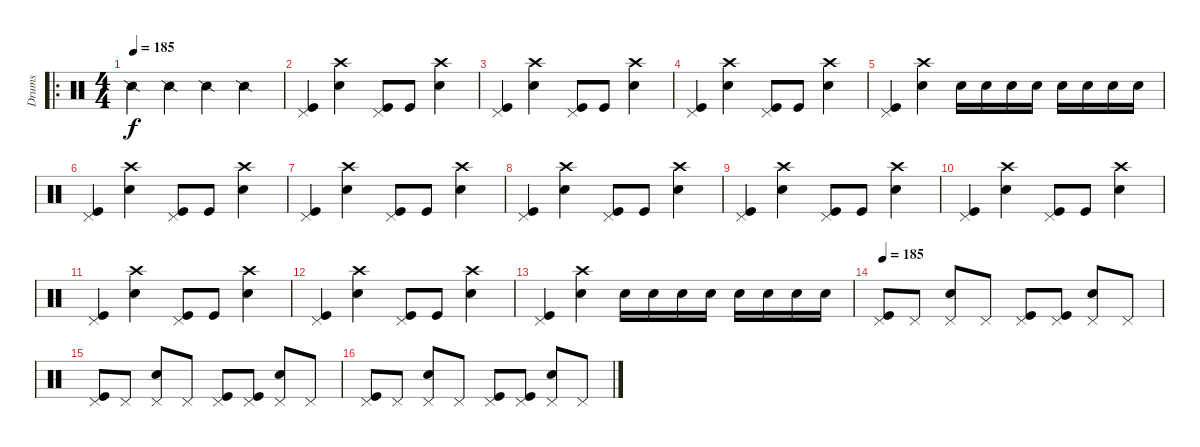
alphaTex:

\track ("Drums" "Drums") {instrument percussion}
\staff {score}
\articulation defaults
\ro
\ts (4 4)
\tempo 185
\clef neutral
\ks c "Snare (side stick) 2".4{dy f} "Snare (side stick) 2".4 "Snare (side stick) 2".4 "Snare (side stick) 2".4
|
("Pedal Hi-Hat (hit)" "Kick (hit)").4 ("Crash high (hit)" "Electric Snare (hit)").4 ("Pedal Hi-Hat (hit)" "Kick (hit)").8 "Kick (hit)".8 ("Crash high (hit)" "Electric Snare (hit)").4 |
("Pedal Hi-Hat (hit)" "Kick (hit)").4 ("Crash high (hit)" "Electric Snare (hit)").4 ("Pedal Hi-Hat (hit)" "Kick (hit)").8 "Kick (hit)".8 ("Crash high (hit)" "Electric Snare (hit)").4 |
("Pedal Hi-Hat (hit)" "Kick (hit)").4 ("Crash high (hit)" "Electric Snare (hit)").4 ("Pedal Hi-Hat (hit)" "Kick (hit)").8 "Kick (hit)".8 ("Crash high (hit)" "Electric Snare (hit)").4 |
("Pedal Hi-Hat (hit)" "Kick (hit)").4 ("Crash high (hit)" "Electric Snare (hit)").4 "Electric Snare (hit)".16 "Electric Snare (hit)".16 "Electric Snare (hit)".16 "Electric Snare (hit)".16 "Electric Snare (hit)".16 "Electric Snare (hit)".16 "Electric Snare (hit)".16 "Electric Snare (hit)".16 |
("Pedal Hi-Hat (hit)" "Kick (hit)").4 ("Crash high (hit)" "Electric Snare (hit)").4 ("Pedal Hi-Hat (hit)" "Kick (hit)").8 "Kick (hit)".8 ("Crash high (hit)" "Electric Snare (hit)").4 |
("Pedal Hi-Hat (hit)" "Kick (hit)").4 ("Crash high (hit)" "Electric Snare (hit)").4 ("Pedal Hi-Hat (hit)" "Kick (hit)").8 "Kick (hit)".8 ("Crash high (hit)" "Electric Snare (hit)").4 |
("Pedal Hi-Hat (hit)" "Kick (hit)").4 ("Crash high (hit)" "Electric Snare (hit)").4 ("Pedal Hi-Hat (hit)" "Kick (hit)").8 "Kick (hit)".8 ("Crash high (hit)" "Electric Snare (hit)").4 |
("Pedal Hi-Hat (hit)" "Kick (hit)").4 ("Crash high (hit)" "Electric Snare (hit)").4 ("Pedal Hi-Hat (hit)" "Kick (hit)").8 "Kick (hit)".8 ("Crash high (hit)" "Electric Snare (hit)").4 |
("Pedal Hi-Hat (hit)" "Kick (hit)").4 ("Crash high (hit)" "Electric Snare (hit)").4 ("Pedal Hi-Hat (hit)" "Kick (hit)").8 "Kick (hit)".8 ("Crash high (hit)" "Electric Snare (hit)").4 |
("Pedal Hi-Hat (hit)" "Kick (hit)").4 ("Crash high (hit)" "Electric Snare (hit)").4 ("Pedal Hi-Hat (hit)" "Kick (hit)").8 "Kick (hit)".8 ("Crash high (hit)" "Electric Snare (hit)").4 |
("Pedal Hi-Hat (hit)" "Kick (hit)").4 ("Crash high (hit)" "Electric Snare (hit)").4 ("Pedal Hi-Hat (hit)" "Kick (hit)").8 "Kick (hit)".8 ("Crash high (hit)" "Electric Snare (hit)").4 |
("Pedal Hi-Hat (hit)" "Kick (hit)").4 ("Crash high (hit)" "Electric Snare (hit)").4 "Electric Snare (hit)".16 "Electric Snare (hit)".16 "Electric Snare (hit)".16 "Electric Snare (hit)".16 "Electric Snare (hit)".16 "Electric Snare (hit)".16 "Electric Snare (hit)".16 "Electric Snare (hit)".16 |
\tempo 185
("Pedal Hi-Hat (hit)" "Kick (hit)").8 "Pedal Hi-Hat (hit)".8 ("Pedal Hi-Hat (hit)" "Electric Snare (hit)").8 "Pedal Hi-Hat (hit)".8 ("Pedal Hi-Hat (hit)" "Kick (hit)").8 ("Pedal Hi-Hat (hit)" "Kick (hit)").8 ("Pedal Hi-Hat (hit)" "Electric Snare (hit)").8 "Pedal Hi-Hat (hit)".8 |
("Pedal Hi-Hat (hit)" "Kick (hit)").8 "Pedal Hi-Hat (hit)".8 ("Pedal Hi-Hat (hit)" "Electric Snare (hit)").8 "Pedal Hi-Hat (hit)".8 ("Pedal Hi-Hat (hit)" "Kick (hit)").8 ("Pedal Hi-Hat (hit)" "Kick (hit)").8 ("Pedal Hi-Hat (hit)" "Electric Snare (hit)").8 "Pedal Hi-Hat (hit)".8 |
("Pedal Hi-Hat (hit)" "Kick (hit)").8 "Pedal Hi-Hat (hit)".8 ("Pedal Hi-Hat (hit)" "Electric Snare (hit)").8 "Pedal Hi-Hat (hit)".8 ("Pedal Hi-Hat (hit)" "Kick (hit)").8 ("Pedal Hi-Hat (hit)" "Kick (hit)").8 ("Pedal Hi-Hat (hit)" "Electric Snare (hit)").8 "Pedal Hi-Hat (hit)".8
